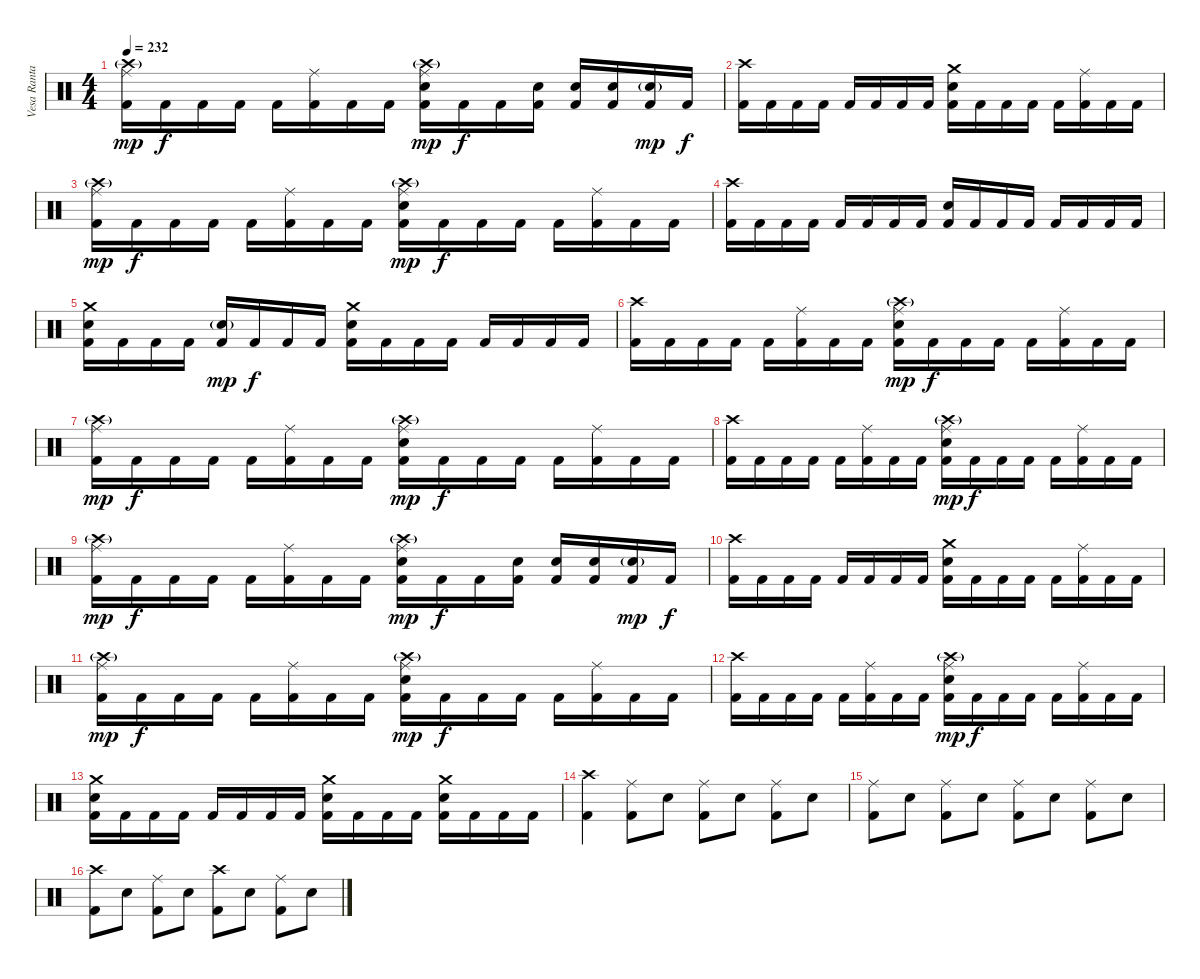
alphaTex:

\track ("Vesa Ranta" "Vesa Ranta") {instrument percussion}
\staff {score}
\articulation defaults
\ts (4 4)
\tempo 232
\clef neutral
\ks c
("Ride (middle)" "Crash high (hit)"{g} "Kick (hit) 2").16{dy mp} "Kick (hit) 2".16{dy f} "Kick (hit) 2".16 "Kick (hit) 2".16 "Kick (hit) 2".16 ("Ride (middle)" "Kick (hit) 2").16 "Kick (hit) 2".16 "Kick (hit) 2".16 ("Ride (middle)" "Crash high (hit)"{g} "Electric Snare (hit)" "Kick (hit) 2").16{dy mp} "Kick (hit) 2".16{dy f} "Kick (hit) 2".16 ("Electric Snare (hit)" "Kick (hit) 2").16 ("Electric Snare (hit)" "Kick (hit) 2").16 ("Electric Snare (hit)" "Kick (hit) 2").16 ("Electric Snare (hit)"{g} "Kick (hit) 2").16{dy mp} "Kick (hit) 2".16{dy f} |
("Crash high (hit)" "Kick (hit) 2").16 "Kick (hit) 2".16 "Kick (hit) 2".16 "Kick (hit) 2".16 "Kick (hit) 2".16 "Kick (hit) 2".16 "Kick (hit) 2".16 "Kick (hit) 2".16 ("Crash medium (hit)" "Electric Snare (hit)" "Kick (hit) 2").16 "Kick (hit) 2".16 "Kick (hit) 2".16 "Kick (hit) 2".16 "Kick (hit) 2".16 ("Ride (middle)" "Kick (hit) 2").16 "Kick (hit) 2".16 "Kick (hit) 2".16 |
("Ride (middle)" "Crash high (hit)"{g} "Kick (hit) 2").16{dy mp} "Kick (hit) 2".16{dy f} "Kick (hit) 2".16 "Kick (hit) 2".16 "Kick (hit) 2".16 ("Ride (middle)" "Kick (hit) 2").16 "Kick (hit) 2".16 "Kick (hit) 2".16 ("Ride (middle)" "Crash high (hit)"{g} "Electric Snare (hit)" "Kick (hit) 2").16{dy mp} "Kick (hit) 2".16{dy f} "Kick (hit) 2".16 "Kick (hit) 2".16 "Kick (hit) 2".16 ("Ride (middle)" "Kick (hit) 2").16 "Kick (hit) 2".16 "Kick (hit) 2".16 |
("Crash high (hit)" "Kick (hit) 2").16 "Kick (hit) 2".16 "Kick (hit) 2".16 "Kick (hit) 2".16 "Kick (hit) 2".16 "Kick (hit) 2".16 "Kick (hit) 2".16 "Kick (hit) 2".16 ("Electric Snare (hit)" "Kick (hit) 2").16 "Kick (hit) 2".16 "Kick (hit) 2".16 "Kick (hit) 2".16 "Kick (hit) 2".16 "Kick (hit) 2".16 "Kick (hit) 2".16 "Kick (hit) 2".16 |
("Crash medium (hit)" "Electric Snare (hit)" "Kick (hit) 2").16 "Kick (hit) 2".16 "Kick (hit) 2".16 "Kick (hit) 2".16 ("Electric Snare (hit)"{g} "Kick (hit) 2").16{dy mp} "Kick (hit) 2".16{dy f} "Kick (hit) 2".16 "Kick (hit) 2".16 ("Crash medium (hit)" "Electric Snare (hit)" "Kick (hit) 2").16 "Kick (hit) 2".16 "Kick (hit) 2".16 "Kick (hit) 2".16 "Kick (hit) 2".16 "Kick (hit) 2".16 "Kick (hit) 2".16 "Kick (hit) 2".16 |
("Crash high (hit)" "Kick (hit) 2").16 "Kick (hit) 2".16 "Kick (hit) 2".16 "Kick (hit) 2".16 "Kick (hit) 2".16 ("Ride (middle)" "Kick (hit) 2").16 "Kick (hit) 2".16 "Kick (hit) 2".16 ("Ride (middle)" "Crash high (hit)"{g} "Electric Snare (hit)" "Kick (hit) 2").16{dy mp} "Kick (hit) 2".16{dy f} "Kick (hit) 2".16 "Kick (hit) 2".16 "Kick (hit) 2".16 ("Ride (middle)" "Kick (hit) 2").16 "Kick (hit) 2".16 "Kick (hit) 2".16 |
("Ride (middle)" "Crash high (hit)"{g} "Kick (hit) 2").16{dy mp} "Kick (hit) 2".16{dy f} "Kick (hit) 2".16 "Kick (hit) 2".16 "Kick (hit) 2".16 ("Ride (middle)" "Kick (hit) 2").16 "Kick (hit) 2".16 "Kick (hit) 2".16 ("Ride (middle)" "Crash high (hit)"{g} "Electric Snare (hit)" "Kick (hit) 2").16{dy mp} "Kick (hit) 2".16{dy f} "Kick (hit) 2".16 "Kick (hit) 2".16 "Kick (hit) 2".16 ("Ride (middle)" "Kick (hit) 2").16 "Kick (hit) 2".16 "Kick (hit) 2".16 |
("Crash high (hit)" "Kick (hit) 2").16 "Kick (hit) 2".16 "Kick (hit) 2".16 "Kick (hit) 2".16 "Kick (hit) 2".16 ("Ride (middle)" "Kick (hit) 2").16 "Kick (hit) 2".16 "Kick (hit) 2".16 ("Ride (middle)" "Crash high (hit)"{g} "Electric Snare (hit)" "Kick (hit) 2").16{dy mp} "Kick (hit) 2".16{dy f} "Kick (hit) 2".16 "Kick (hit) 2".16 "Kick (hit) 2".16 ("Ride (middle)" "Kick (hit) 2").16 "Kick (hit) 2".16 "Kick (hit) 2".16 |
("Ride (middle)" "Crash high (hit)"{g} "Kick (hit) 2").16{dy mp} "Kick (hit) 2".16{dy f} "Kick (hit) 2".16 "Kick (hit) 2".16 "Kick (hit) 2".16 ("Ride (middle)" "Kick (hit) 2").16 "Kick (hit) 2".16 "Kick (hit) 2".16 ("Ride (middle)" "Crash high (hit)"{g} "Electric Snare (hit)" "Kick (hit) 2").16{dy mp} "Kick (hit) 2".16{dy f} "Kick (hit) 2".16 ("Electric Snare (hit)" "Kick (hit) 2").16 ("Electric Snare (hit)" "Kick (hit) 2").16 ("Electric Snare (hit)" "Kick (hit) 2").16 ("Electric Snare (hit)"{g} "Kick (hit) 2").16{dy mp} "Kick (hit) 2".16{dy f} |
("Crash high (hit)" "Kick (hit) 2").16 "Kick (hit) 2".16 "Kick (hit) 2".16 "Kick (hit) 2".16 "Kick (hit) 2".16 "Kick (hit) 2".16 "Kick (hit) 2".16 "Kick (hit) 2".16 ("Crash medium (hit)" "Electric Snare (hit)" "Kick (hit) 2").16 "Kick (hit) 2".16 "Kick (hit) 2".16 "Kick (hit) 2".16 "Kick (hit) 2".16 ("Ride (middle)" "Kick (hit) 2").16 "Kick (hit) 2".16 "Kick (hit) 2".16 |
("Ride (middle)" "Crash high (hit)"{g} "Kick (hit) 2").16{dy mp} "Kick (hit) 2".16{dy f} "Kick (hit) 2".16 "Kick (hit) 2".16 "Kick (hit) 2".16 ("Ride (middle)" "Kick (hit) 2").16 "Kick (hit) 2".16 "Kick (hit) 2".16 ("Ride (middle)" "Crash high (hit)"{g} "Electric Snare (hit)" "Kick (hit) 2").16{dy mp} "Kick (hit) 2".16{dy f} "Kick (hit) 2".16 "Kick (hit) 2".16 "Kick (hit) 2".16 ("Ride (middle)" "Kick (hit) 2").16 "Kick (hit) 2".16 "Kick (hit) 2".16 |
("Crash high (hit)" "Kick (hit) 2").16 "Kick (hit) 2".16 "Kick (hit) 2".16 "Kick (hit) 2".16 "Kick (hit) 2".16 ("Ride (middle)" "Kick (hit) 2").16 "Kick (hit) 2".16 "Kick (hit) 2".16 ("Ride (middle)" "Crash high (hit)"{g} "Electric Snare (hit)" "Kick (hit) 2").16{dy mp} "Kick (hit) 2".16{dy f} "Kick (hit) 2".16 "Kick (hit) 2".16 "Kick (hit) 2".16 ("Ride (middle)" "Kick (hit) 2").16 "Kick (hit) 2".16 "Kick (hit) 2".16 |
("Crash medium (hit)" "Electric Snare (hit)" "Kick (hit) 2").16 "Kick (hit) 2".16 "Kick (hit) 2".16 "Kick (hit) 2".16 "Kick (hit) 2".16 "Kick (hit) 2".16 "Kick (hit) 2".16 "Kick (hit) 2".16 ("Crash medium (hit)" "Electric Snare (hit)" "Kick (hit) 2").16 "Kick (hit) 2".16 "Kick (hit) 2".16 "Kick (hit) 2".16 ("Crash medium (hit)" "Electric Snare (hit)" "Kick (hit) 2").16 "Kick (hit) 2".16 "Kick (hit) 2".16 "Kick (hit) 2".16 |
("Crash high (hit)" "Kick (hit) 2").4 ("Ride (middle)" "Kick (hit) 2").8 "Electric Snare (hit)".8 ("Ride (middle)" "Kick (hit) 2").8 "Electric Snare (hit)".8 ("Ride (middle)" "Kick (hit) 2").8 "Electric Snare (hit)".8 |
("Ride (middle)" "Kick (hit) 2").8 "Electric Snare (hit)".8 ("Ride (middle)" "Kick (hit) 2").8 "Electric Snare (hit)".8 ("Ride (middle)" "Kick (hit) 2").8 "Electric Snare (hit)".8 ("Ride (middle)" "Kick (hit) 2").8 "Electric Snare (hit)".8 |
("Crash high (hit)" "Kick (hit) 2").8 "Electric Snare (hit)".8 ("Ride (middle)" "Kick (hit) 2").8 "Electric Snare (hit)".8 ("Crash high (hit)" "Kick (hit) 2").8 "Electric Snare (hit)".8 ("Ride (middle)" "Kick (hit) 2").8 "Electric Snare (hit)".8
